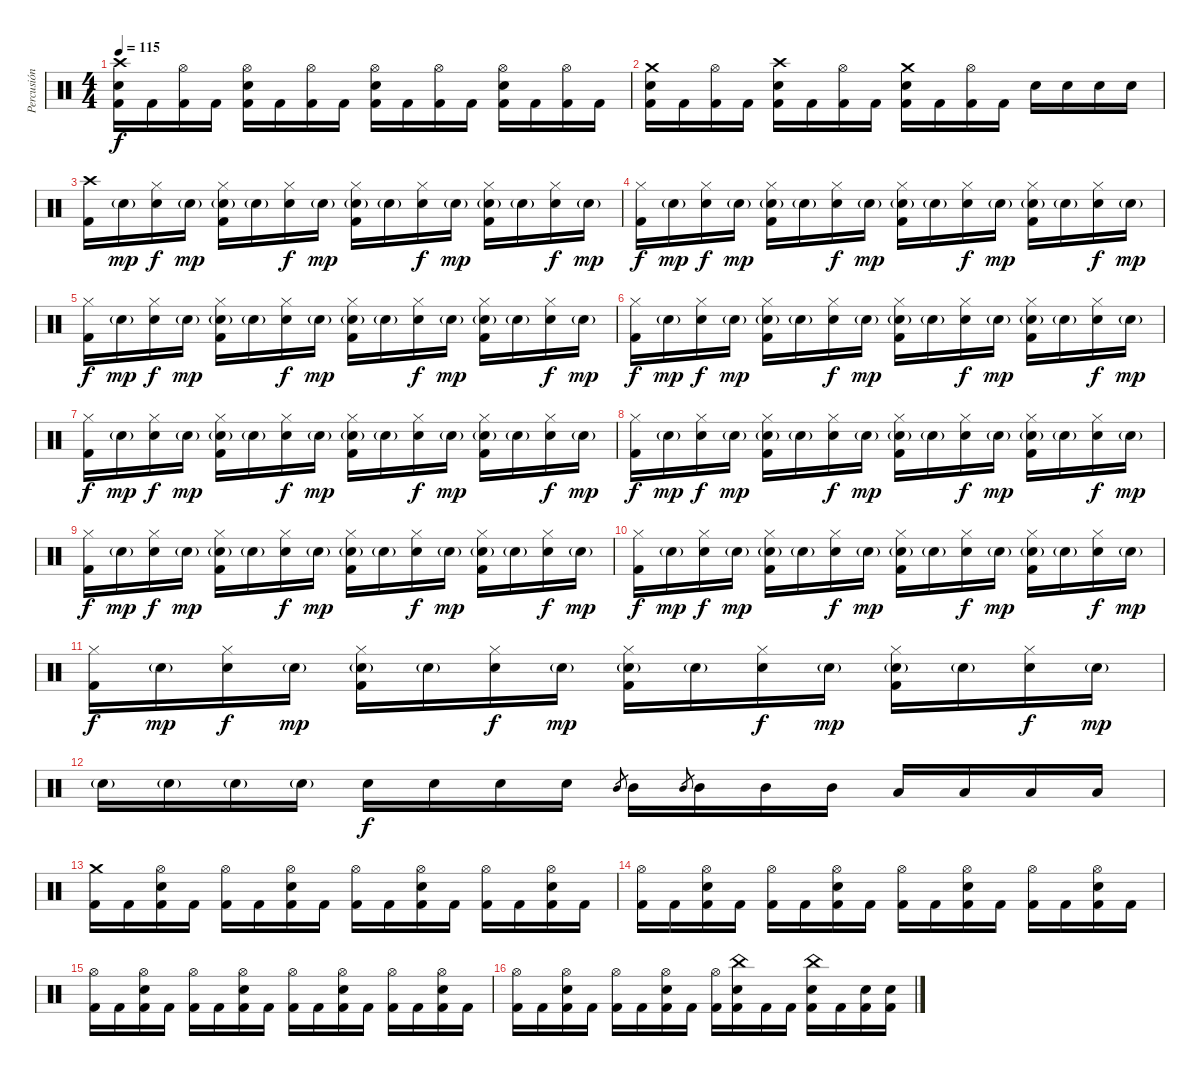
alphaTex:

\track ("Percusión" "Percusión") {instrument percussion}
\staff {score}
\articulation defaults
\ts (4 4)
\tempo 115
\clef neutral
\ks c
("Crash high (hit)" "Snare (hit) 2" "Kick (hit) 2").16{dy f} "Kick (hit) 2".16 ("Hi-Hat (open)" "Kick (hit) 2").16 "Kick (hit) 2".16 ("Hi-Hat (open)" "Snare (hit) 2" "Kick (hit) 2").16 "Kick (hit) 2".16 ("Hi-Hat (open)" "Kick (hit) 2").16 "Kick (hit) 2".16 ("Hi-Hat (open)" "Snare (hit) 2" "Kick (hit) 2").16 "Kick (hit) 2".16 ("Hi-Hat (open)" "Kick (hit) 2").16 "Kick (hit) 2".16 ("Hi-Hat (open)" "Snare (hit) 2" "Kick (hit) 2").16 "Kick (hit) 2".16 ("Hi-Hat (open)" "Kick (hit) 2").16 "Kick (hit) 2".16 |
("Crash medium (hit)" "Snare (hit) 2" "Kick (hit) 2").16 "Kick (hit) 2".16 ("Hi-Hat (open)" "Kick (hit) 2").16 "Kick (hit) 2".16 ("Crash high (hit)" "Snare (hit) 2" "Kick (hit) 2").16 "Kick (hit) 2".16 ("Hi-Hat (open)" "Kick (hit) 2").16 "Kick (hit) 2".16 ("Crash medium (hit)" "Snare (hit) 2" "Kick (hit) 2").16 "Kick (hit) 2".16 ("Hi-Hat (open)" "Kick (hit) 2").16 "Kick (hit) 2".16 "Snare (hit) 2".16 "Snare (hit) 2".16 "Snare (hit) 2".16 "Snare (hit) 2".16 |
("Crash high (hit)" "Kick (hit) 2").16 "Snare (hit) 2"{g}.16{dy mp} ("Hi-Hat (closed)" "Snare (hit) 2").16{dy f} "Snare (hit) 2"{g}.16{dy mp} ("Hi-Hat (closed)" "Snare (hit) 2"{g} "Kick (hit) 2").16 "Snare (hit) 2"{g}.16 ("Hi-Hat (closed)" "Snare (hit) 2").16{dy f} "Snare (hit) 2"{g}.16{dy mp} ("Hi-Hat (closed)" "Snare (hit) 2"{g} "Kick (hit) 2").16 "Snare (hit) 2"{g}.16 ("Hi-Hat (closed)" "Snare (hit) 2").16{dy f} "Snare (hit) 2"{g}.16{dy mp} ("Hi-Hat (closed)" "Snare (hit) 2"{g} "Kick (hit) 2").16 "Snare (hit) 2"{g}.16 ("Hi-Hat (closed)" "Snare (hit) 2").16{dy f} "Snare (hit) 2"{g}.16{dy mp} |
("Hi-Hat (closed)" "Kick (hit) 2").16{dy f} "Snare (hit) 2"{g}.16{dy mp} ("Hi-Hat (closed)" "Snare (hit) 2").16{dy f} "Snare (hit) 2"{g}.16{dy mp} ("Hi-Hat (closed)" "Snare (hit) 2"{g} "Kick (hit) 2").16 "Snare (hit) 2"{g}.16 ("Hi-Hat (closed)" "Snare (hit) 2").16{dy f} "Snare (hit) 2"{g}.16{dy mp} ("Hi-Hat (closed)" "Snare (hit) 2"{g} "Kick (hit) 2").16 "Snare (hit) 2"{g}.16 ("Hi-Hat (closed)" "Snare (hit) 2").16{dy f} "Snare (hit) 2"{g}.16{dy mp} ("Hi-Hat (closed)" "Snare (hit) 2"{g} "Kick (hit) 2").16 "Snare (hit) 2"{g}.16 ("Hi-Hat (closed)" "Snare (hit) 2").16{dy f} "Snare (hit) 2"{g}.16{dy mp} |
("Hi-Hat (closed)" "Kick (hit) 2").16{dy f} "Snare (hit) 2"{g}.16{dy mp} ("Hi-Hat (closed)" "Snare (hit) 2").16{dy f} "Snare (hit) 2"{g}.16{dy mp} ("Hi-Hat (closed)" "Snare (hit) 2"{g} "Kick (hit) 2").16 "Snare (hit) 2"{g}.16 ("Hi-Hat (closed)" "Snare (hit) 2").16{dy f} "Snare (hit) 2"{g}.16{dy mp} ("Hi-Hat (closed)" "Snare (hit) 2"{g} "Kick (hit) 2").16 "Snare (hit) 2"{g}.16 ("Hi-Hat (closed)" "Snare (hit) 2").16{dy f} "Snare (hit) 2"{g}.16{dy mp} ("Hi-Hat (closed)" "Snare (hit) 2"{g} "Kick (hit) 2").16 "Snare (hit) 2"{g}.16 ("Hi-Hat (closed)" "Snare (hit) 2").16{dy f} "Snare (hit) 2"{g}.16{dy mp} |
("Hi-Hat (closed)" "Kick (hit) 2").16{dy f} "Snare (hit) 2"{g}.16{dy mp} ("Hi-Hat (closed)" "Snare (hit) 2").16{dy f} "Snare (hit) 2"{g}.16{dy mp} ("Hi-Hat (closed)" "Snare (hit) 2"{g} "Kick (hit) 2").16 "Snare (hit) 2"{g}.16 ("Hi-Hat (closed)" "Snare (hit) 2").16{dy f} "Snare (hit) 2"{g}.16{dy mp} ("Hi-Hat (closed)" "Snare (hit) 2"{g} "Kick (hit) 2").16 "Snare (hit) 2"{g}.16 ("Hi-Hat (closed)" "Snare (hit) 2").16{dy f} "Snare (hit) 2"{g}.16{dy mp} ("Hi-Hat (closed)" "Snare (hit) 2"{g} "Kick (hit) 2").16 "Snare (hit) 2"{g}.16 ("Hi-Hat (closed)" "Snare (hit) 2").16{dy f} "Snare (hit) 2"{g}.16{dy mp} |
("Hi-Hat (closed)" "Kick (hit) 2").16{dy f} "Snare (hit) 2"{g}.16{dy mp} ("Hi-Hat (closed)" "Snare (hit) 2").16{dy f} "Snare (hit) 2"{g}.16{dy mp} ("Hi-Hat (closed)" "Snare (hit) 2"{g} "Kick (hit) 2").16 "Snare (hit) 2"{g}.16 ("Hi-Hat (closed)" "Snare (hit) 2").16{dy f} "Snare (hit) 2"{g}.16{dy mp} ("Hi-Hat (closed)" "Snare (hit) 2"{g} "Kick (hit) 2").16 "Snare (hit) 2"{g}.16 ("Hi-Hat (closed)" "Snare (hit) 2").16{dy f} "Snare (hit) 2"{g}.16{dy mp} ("Hi-Hat (closed)" "Snare (hit) 2"{g} "Kick (hit) 2").16 "Snare (hit) 2"{g}.16 ("Hi-Hat (closed)" "Snare (hit) 2").16{dy f} "Snare (hit) 2"{g}.16{dy mp} |
("Hi-Hat (closed)" "Kick (hit) 2").16{dy f} "Snare (hit) 2"{g}.16{dy mp} ("Hi-Hat (closed)" "Snare (hit) 2").16{dy f} "Snare (hit) 2"{g}.16{dy mp} ("Hi-Hat (closed)" "Snare (hit) 2"{g} "Kick (hit) 2").16 "Snare (hit) 2"{g}.16 ("Hi-Hat (closed)" "Snare (hit) 2").16{dy f} "Snare (hit) 2"{g}.16{dy mp} ("Hi-Hat (closed)" "Snare (hit) 2"{g} "Kick (hit) 2").16 "Snare (hit) 2"{g}.16 ("Hi-Hat (closed)" "Snare (hit) 2").16{dy f} "Snare (hit) 2"{g}.16{dy mp} ("Hi-Hat (closed)" "Snare (hit) 2"{g} "Kick (hit) 2").16 "Snare (hit) 2"{g}.16 ("Hi-Hat (closed)" "Snare (hit) 2").16{dy f} "Snare (hit) 2"{g}.16{dy mp} |
("Hi-Hat (closed)" "Kick (hit) 2").16{dy f} "Snare (hit) 2"{g}.16{dy mp} ("Hi-Hat (closed)" "Snare (hit) 2").16{dy f} "Snare (hit) 2"{g}.16{dy mp} ("Hi-Hat (closed)" "Snare (hit) 2"{g} "Kick (hit) 2").16 "Snare (hit) 2"{g}.16 ("Hi-Hat (closed)" "Snare (hit) 2").16{dy f} "Snare (hit) 2"{g}.16{dy mp} ("Hi-Hat (closed)" "Snare (hit) 2"{g} "Kick (hit) 2").16 "Snare (hit) 2"{g}.16 ("Hi-Hat (closed)" "Snare (hit) 2").16{dy f} "Snare (hit) 2"{g}.16{dy mp} ("Hi-Hat (closed)" "Snare (hit) 2"{g} "Kick (hit) 2").16 "Snare (hit) 2"{g}.16 ("Hi-Hat (closed)" "Snare (hit) 2").16{dy f} "Snare (hit) 2"{g}.16{dy mp} |
("Hi-Hat (closed)" "Kick (hit) 2").16{dy f} "Snare (hit) 2"{g}.16{dy mp} ("Hi-Hat (closed)" "Snare (hit) 2").16{dy f} "Snare (hit) 2"{g}.16{dy mp} ("Hi-Hat (closed)" "Snare (hit) 2"{g} "Kick (hit) 2").16 "Snare (hit) 2"{g}.16 ("Hi-Hat (closed)" "Snare (hit) 2").16{dy f} "Snare (hit) 2"{g}.16{dy mp} ("Hi-Hat (closed)" "Snare (hit) 2"{g} "Kick (hit) 2").16 "Snare (hit) 2"{g}.16 ("Hi-Hat (closed)" "Snare (hit) 2").16{dy f} "Snare (hit) 2"{g}.16{dy mp} ("Hi-Hat (closed)" "Snare (hit) 2"{g} "Kick (hit) 2").16 "Snare (hit) 2"{g}.16 ("Hi-Hat (closed)" "Snare (hit) 2").16{dy f} "Snare (hit) 2"{g}.16{dy mp} |
("Hi-Hat (closed)" "Kick (hit) 2").16{dy f} "Snare (hit) 2"{g}.16{dy mp} ("Hi-Hat (closed)" "Snare (hit) 2").16{dy f} "Snare (hit) 2"{g}.16{dy mp} ("Hi-Hat (closed)" "Snare (hit) 2"{g} "Kick (hit) 2").16 "Snare (hit) 2"{g}.16 ("Hi-Hat (closed)" "Snare (hit) 2").16{dy f} "Snare (hit) 2"{g}.16{dy mp} ("Hi-Hat (closed)" "Snare (hit) 2"{g} "Kick (hit) 2").16 "Snare (hit) 2"{g}.16 ("Hi-Hat (closed)" "Snare (hit) 2").16{dy f} "Snare (hit) 2"{g}.16{dy mp} ("Hi-Hat (closed)" "Snare (hit) 2"{g} "Kick (hit) 2").16 "Snare (hit) 2"{g}.16 ("Hi-Hat (closed)" "Snare (hit) 2").16{dy f} "Snare (hit) 2"{g}.16{dy mp} |
"Snare (hit) 2"{g}.16 "Snare (hit) 2"{g}.16 "Snare (hit) 2"{g}.16 "Snare (hit) 2"{g}.16 "Snare (hit) 2".16{dy f} "Snare (hit) 2".16 "Snare (hit) 2".16 "Snare (hit) 2".16 "Mid Tom (hit)".8{gr} "Mid Tom (hit)".16 "Mid Tom (hit)".8{gr} "Mid Tom (hit)".16 "Mid Tom (hit)".16 "Mid Tom (hit)".16 "Low Tom (hit)".16 "Low Tom (hit)".16 "Low Tom (hit)".16 "Low Tom (hit)".16 |
("Crash medium (hit)" "Kick (hit) 2").16 "Kick (hit) 2".16 ("Hi-Hat (open)" "Snare (hit) 2" "Kick (hit) 2").16 "Kick (hit) 2".16 ("Hi-Hat (open)" "Kick (hit) 2").16 "Kick (hit) 2".16 ("Hi-Hat (open)" "Snare (hit) 2" "Kick (hit) 2").16 "Kick (hit) 2".16 ("Hi-Hat (open)" "Kick (hit) 2").16 "Kick (hit) 2".16 ("Hi-Hat (open)" "Snare (hit) 2" "Kick (hit) 2").16 "Kick (hit) 2".16 ("Hi-Hat (open)" "Kick (hit) 2").16 "Kick (hit) 2".16 ("Hi-Hat (open)" "Snare (hit) 2" "Kick (hit) 2").16 "Kick (hit) 2".16 |
("Hi-Hat (open)" "Kick (hit) 2").16 "Kick (hit) 2".16 ("Hi-Hat (open)" "Snare (hit) 2" "Kick (hit) 2").16 "Kick (hit) 2".16 ("Hi-Hat (open)" "Kick (hit) 2").16 "Kick (hit) 2".16 ("Hi-Hat (open)" "Snare (hit) 2" "Kick (hit) 2").16 "Kick (hit) 2".16 ("Hi-Hat (open)" "Kick (hit) 2").16 "Kick (hit) 2".16 ("Hi-Hat (open)" "Snare (hit) 2" "Kick (hit) 2").16 "Kick (hit) 2".16 ("Hi-Hat (open)" "Kick (hit) 2").16 "Kick (hit) 2".16 ("Hi-Hat (open)" "Snare (hit) 2" "Kick (hit) 2").16 "Kick (hit) 2".16 |
("Hi-Hat (open)" "Kick (hit) 2").16 "Kick (hit) 2".16 ("Hi-Hat (open)" "Snare (hit) 2" "Kick (hit) 2").16 "Kick (hit) 2".16 ("Hi-Hat (open)" "Kick (hit) 2").16 "Kick (hit) 2".16 ("Hi-Hat (open)" "Snare (hit) 2" "Kick (hit) 2").16 "Kick (hit) 2".16 ("Hi-Hat (open)" "Kick (hit) 2").16 "Kick (hit) 2".16 ("Hi-Hat (open)" "Snare (hit) 2" "Kick (hit) 2").16 "Kick (hit) 2".16 ("Hi-Hat (open)" "Kick (hit) 2").16 "Kick (hit) 2".16 ("Hi-Hat (open)" "Snare (hit) 2" "Kick (hit) 2").16 "Kick (hit) 2".16 |
("Hi-Hat (open)" "Kick (hit) 2").16 "Kick (hit) 2".16 ("Hi-Hat (open)" "Snare (hit) 2" "Kick (hit) 2").16 "Kick (hit) 2".16 ("Hi-Hat (open)" "Kick (hit) 2").16 "Kick (hit) 2".16 ("Hi-Hat (open)" "Snare (hit) 2" "Kick (hit) 2").16 "Kick (hit) 2".16 ("Hi-Hat (open)" "Kick (hit) 2").16 ("China (hit)" "Snare (hit) 2" "Kick (hit) 2").16 "Kick (hit) 2".16 "Kick (hit) 2".16 ("China (hit)" "Snare (hit) 2" "Kick (hit) 2").16 "Kick (hit) 2".16 ("Snare (hit) 2" "Kick (hit) 2").16 ("Snare (hit) 2" "Kick (hit) 2").16
